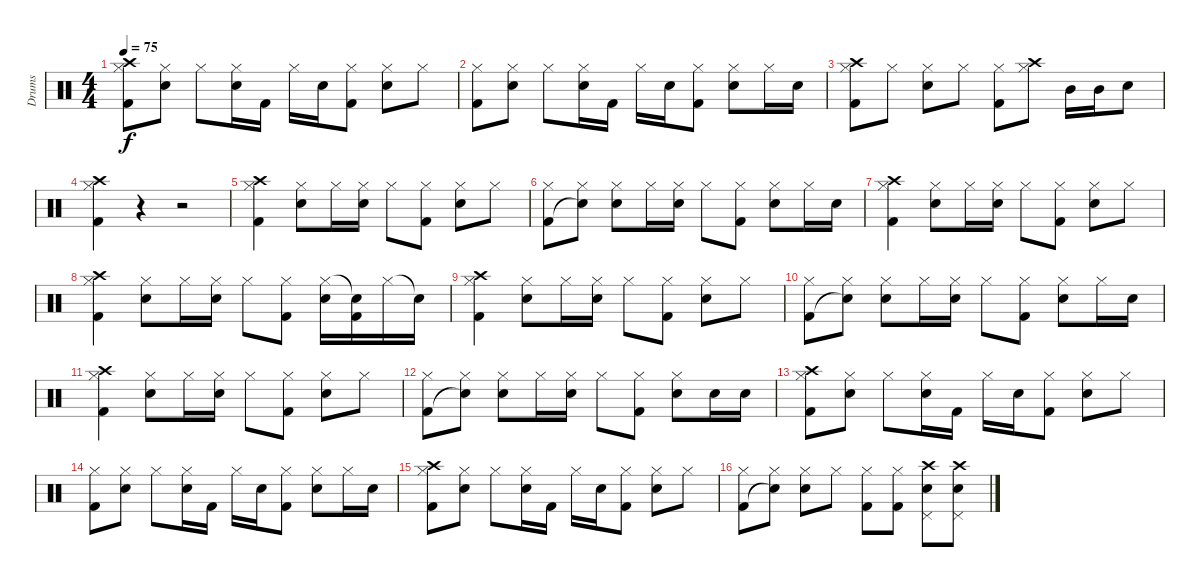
\track ("Drums" "Drums") {instrument percussion}
\staff {score}
\articulation defaults
\ts (4 4)
\tempo 75
\clef neutral
\ks c
("Crash high (hit)" "Hi-Hat (closed)" "Kick (hit) 2").8{dy f} ("Hi-Hat (closed)" "Electric Snare (hit)").8 "Hi-Hat (closed)".8 ("Hi-Hat (closed)" "Electric Snare (hit)").16 "Kick (hit) 2".16 "Hi-Hat (closed)".16 "Electric Snare (hit)".16 ("Hi-Hat (closed)" "Kick (hit) 2").8 ("Hi-Hat (closed)" "Electric Snare (hit)").8 "Hi-Hat (closed)".8 |
("Hi-Hat (closed)" "Kick (hit) 2").8 ("Hi-Hat (closed)" "Electric Snare (hit)").8 "Hi-Hat (closed)".8 ("Hi-Hat (closed)" "Electric Snare (hit)").16 "Kick (hit) 2".16 "Hi-Hat (closed)".16 "Electric Snare (hit)".16 ("Hi-Hat (closed)" "Kick (hit) 2").8 ("Hi-Hat (closed)" "Electric Snare (hit)").8 "Hi-Hat (closed)".16 "Electric Snare (hit)".16 |
("Crash high (hit)" "Hi-Hat (closed)" "Kick (hit) 2").8 "Hi-Hat (closed)".8 ("Hi-Hat (closed)" "Electric Snare (hit)").8 "Hi-Hat (closed)".8 ("Hi-Hat (closed)" "Kick (hit) 2").8 ("Crash high (hit)" "Hi-Hat (closed)").8 "Mid Tom (hit)".16 "Mid Tom (hit)".16 "Electric Snare (hit)".8 |
("Crash high (hit)" "Hi-Hat (closed)" "Kick (hit) 2").4 r.4 r.2 |
("Crash high (hit)" "Hi-Hat (closed)" "Kick (hit) 2").4 ("Hi-Hat (closed)" "Electric Snare (hit)").8 "Hi-Hat (closed)".16 ("Hi-Hat (closed)" "Electric Snare (hit)").16 "Hi-Hat (closed)".8 ("Hi-Hat (closed)" "Kick (hit) 2").8 ("Hi-Hat (closed)" "Electric Snare (hit)").8 "Hi-Hat (closed)".8 |
("Hi-Hat (closed)" "Kick (hit) 2").8 ("Hi-Hat (closed)" "Snare (hit)"{t}).8 ("Hi-Hat (closed)" "Electric Snare (hit)").8 "Hi-Hat (closed)".16 ("Hi-Hat (closed)" "Electric Snare (hit)").16 "Hi-Hat (closed)".8 ("Hi-Hat (closed)" "Kick (hit) 2").8 ("Hi-Hat (closed)" "Electric Snare (hit)").8 "Hi-Hat (closed)".16 "Electric Snare (hit)".16 |
("Crash high (hit)" "Hi-Hat (closed)" "Kick (hit) 2").4 ("Hi-Hat (closed)" "Electric Snare (hit)").8 "Hi-Hat (closed)".16 ("Hi-Hat (closed)" "Electric Snare (hit)").16 "Hi-Hat (closed)".8 ("Hi-Hat (closed)" "Kick (hit) 2").8 ("Hi-Hat (closed)" "Electric Snare (hit)").8 "Hi-Hat (closed)".8 |
("Crash high (hit)" "Hi-Hat (closed)" "Kick (hit) 2").4 ("Hi-Hat (closed)" "Electric Snare (hit)").8 "Hi-Hat (closed)".16 ("Hi-Hat (closed)" "Electric Snare (hit)").16 "Hi-Hat (closed)".8 ("Hi-Hat (closed)" "Kick (hit) 2").8 ("Hi-Hat (closed)" "Electric Snare (hit)").16 ("Snare (hit)"{t} "Kick (hit) 2").16 "Hi-Hat (closed)".16 "Snare (hit)"{t}.16 |
("Crash high (hit)" "Hi-Hat (closed)" "Kick (hit) 2").4 ("Hi-Hat (closed)" "Electric Snare (hit)").8 "Hi-Hat (closed)".16 ("Hi-Hat (closed)" "Electric Snare (hit)").16 "Hi-Hat (closed)".8 ("Hi-Hat (closed)" "Kick (hit) 2").8 ("Hi-Hat (closed)" "Electric Snare (hit)").8 "Hi-Hat (closed)".8 |
("Hi-Hat (closed)" "Kick (hit) 2").8 ("Hi-Hat (closed)" "Snare (hit)"{t}).8 ("Hi-Hat (closed)" "Electric Snare (hit)").8 "Hi-Hat (closed)".16 ("Hi-Hat (closed)" "Electric Snare (hit)").16 "Hi-Hat (closed)".8 ("Hi-Hat (closed)" "Kick (hit) 2").8 ("Hi-Hat (closed)" "Electric Snare (hit)").8 "Hi-Hat (closed)".16 "Electric Snare (hit)".16 |
("Crash high (hit)" "Hi-Hat (closed)" "Kick (hit) 2").4 ("Hi-Hat (closed)" "Electric Snare (hit)").8 "Hi-Hat (closed)".16 ("Hi-Hat (closed)" "Electric Snare (hit)").16 "Hi-Hat (closed)".8 ("Hi-Hat (closed)" "Kick (hit) 2").8 ("Hi-Hat (closed)" "Electric Snare (hit)").8 "Hi-Hat (closed)".8 |
("Hi-Hat (closed)" "Kick (hit) 2").8 ("Hi-Hat (closed)" "Snare (hit)"{t}).8 ("Hi-Hat (closed)" "Electric Snare (hit)").8 "Hi-Hat (closed)".16 ("Hi-Hat (closed)" "Electric Snare (hit)").16 "Hi-Hat (closed)".8 ("Hi-Hat (closed)" "Kick (hit) 2").8 ("Hi-Hat (closed)" "Electric Snare (hit)").8 "Electric Snare (hit)".16 "Electric Snare (hit)".16 |
("Crash high (hit)" "Hi-Hat (closed)" "Kick (hit) 2").8 ("Hi-Hat (closed)" "Electric Snare (hit)").8 "Hi-Hat (closed)".8 ("Hi-Hat (closed)" "Electric Snare (hit)").16 "Kick (hit) 2".16 "Hi-Hat (closed)".16 "Electric Snare (hit)".16 ("Hi-Hat (closed)" "Kick (hit) 2").8 ("Hi-Hat (closed)" "Electric Snare (hit)").8 "Hi-Hat (closed)".8 |
("Hi-Hat (closed)" "Kick (hit) 2").8 ("Hi-Hat (closed)" "Electric Snare (hit)").8 "Hi-Hat (closed)".8 ("Hi-Hat (closed)" "Electric Snare (hit)").16 "Kick (hit) 2".16 "Hi-Hat (closed)".16 "Electric Snare (hit)".16 ("Hi-Hat (closed)" "Kick (hit) 2").8 ("Hi-Hat (closed)" "Electric Snare (hit)").8 "Hi-Hat (closed)".16 "Electric Snare (hit)".16 |
("Crash high (hit)" "Hi-Hat (closed)" "Kick (hit) 2").8 ("Hi-Hat (closed)" "Electric Snare (hit)").8 "Hi-Hat (closed)".8 ("Hi-Hat (closed)" "Electric Snare (hit)").16 "Kick (hit) 2".16 "Hi-Hat (closed)".16 "Electric Snare (hit)".16 ("Hi-Hat (closed)" "Kick (hit) 2").8 ("Hi-Hat (closed)" "Electric Snare (hit)").8 "Hi-Hat (closed)".8 |
("Hi-Hat (closed)" "Kick (hit) 2").8 ("Hi-Hat (closed)" "Snare (hit)"{t}).8 ("Electric Snare (hit)" "Hi-Hat (closed)").8 "Hi-Hat (closed)".8 ("Hi-Hat (closed)" "Kick (hit) 2").8 ("Hi-Hat (closed)" "Kick (hit) 2").8 ("Electric Snare (hit)" "Crash high (hit)" "Pedal Hi-Hat (hit)").8 ("Crash high (hit)" "Electric Snare (hit)" "Pedal Hi-Hat (hit)").8
